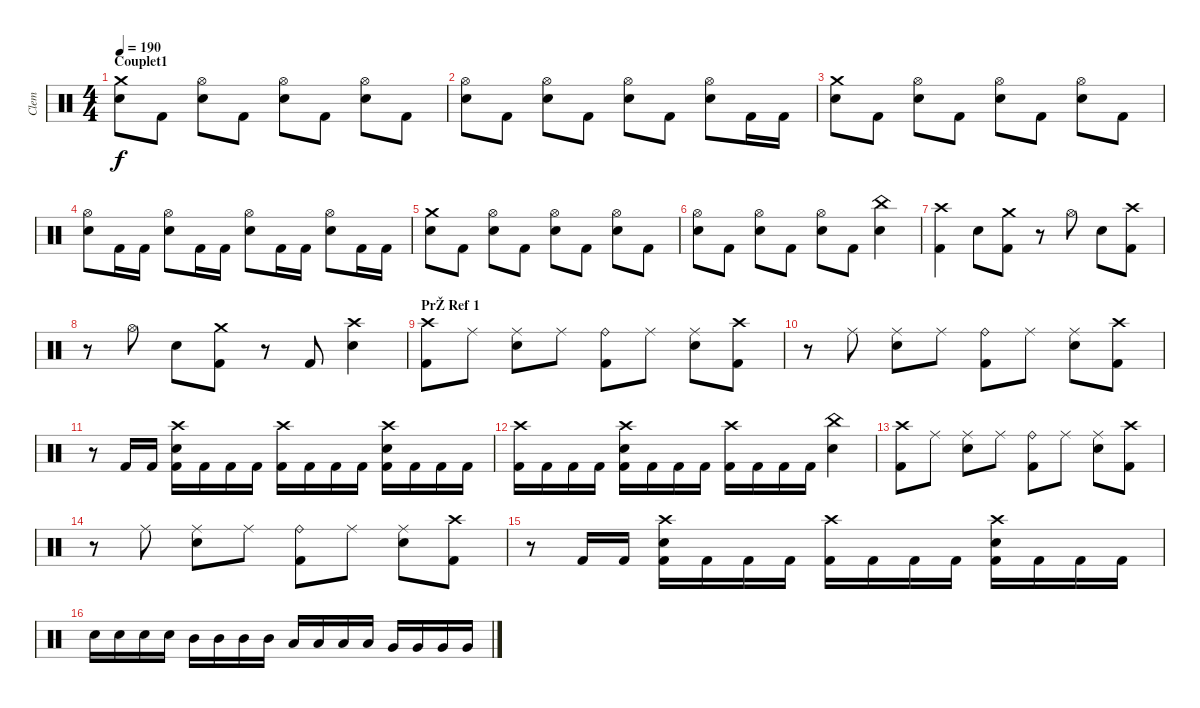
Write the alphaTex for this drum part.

\track ("Clem" "Clem") {instrument percussion}
\staff {score}
\articulation defaults
\ts (4 4)
\section ("" "Couplet1")
\tempo 190
\clef neutral
\ks c
("Crash medium (hit)" "Electric Snare (hit)").8{dy f} "Kick (hit) 2".8 ("Hi-Hat (open)" "Electric Snare (hit)").8 "Kick (hit) 2".8 ("Hi-Hat (open)" "Electric Snare (hit)").8 "Kick (hit) 2".8 ("Hi-Hat (open)" "Electric Snare (hit)").8 "Kick (hit) 2".8 |
("Hi-Hat (open)" "Electric Snare (hit)").8 "Kick (hit) 2".8 ("Hi-Hat (open)" "Electric Snare (hit)").8 "Kick (hit) 2".8 ("Hi-Hat (open)" "Electric Snare (hit)").8 "Kick (hit) 2".8 ("Hi-Hat (open)" "Electric Snare (hit)").8 "Kick (hit) 2".16 "Kick (hit) 2".16 |
("Crash medium (hit)" "Electric Snare (hit)").8 "Kick (hit) 2".8 ("Hi-Hat (open)" "Electric Snare (hit)").8 "Kick (hit) 2".8 ("Hi-Hat (open)" "Electric Snare (hit)").8 "Kick (hit) 2".8 ("Hi-Hat (open)" "Electric Snare (hit)").8 "Kick (hit) 2".8 |
("Hi-Hat (open)" "Electric Snare (hit)").8 "Kick (hit) 2".16 "Kick (hit) 2".16 ("Hi-Hat (open)" "Electric Snare (hit)").8 "Kick (hit) 2".16 "Kick (hit) 2".16 ("Hi-Hat (open)" "Electric Snare (hit)").8 "Kick (hit) 2".16 "Kick (hit) 2".16 ("Hi-Hat (open)" "Electric Snare (hit)").8 "Kick (hit) 2".16 "Kick (hit) 2".16 |
("Crash medium (hit)" "Electric Snare (hit)").8 "Kick (hit) 2".8 ("Hi-Hat (open)" "Electric Snare (hit)").8 "Kick (hit) 2".8 ("Hi-Hat (open)" "Electric Snare (hit)").8 "Kick (hit) 2".8 ("Hi-Hat (open)" "Electric Snare (hit)").8 "Kick (hit) 2".8 |
("Hi-Hat (open)" "Electric Snare (hit)").8 "Kick (hit) 2".8 ("Hi-Hat (open)" "Electric Snare (hit)").8 "Kick (hit) 2".8 ("Hi-Hat (open)" "Electric Snare (hit)").8 "Kick (hit) 2".8 ("China (hit)" "Electric Snare (hit)").4 |
("Crash high (hit)" "Kick (hit) 2").4 "Electric Snare (hit)".8 ("Crash medium (hit)" "Kick (hit) 2").8 r.8 "Hi-Hat (open)".8 "Electric Snare (hit)".8 ("Crash high (hit)" "Kick (hit) 2").8 |
r.8 "Hi-Hat (open)".8 "Electric Snare (hit)".8 ("Crash medium (hit)" "Kick (hit) 2").8 r.8 "Kick (hit) 2".8 ("Crash high (hit)" "Electric Snare (hit)").4 |
\section ("" "PrŽ Ref 1")
("Crash high (hit)" "Kick (hit) 2").8 "Ride (middle)".8 ("Ride (middle)" "Electric Snare (hit)").8 "Ride (middle)".8 ("Ride (bell)" "Kick (hit) 2").8 "Ride (middle)".8 ("Ride (middle)" "Electric Snare (hit)").8 ("Crash high (hit)" "Kick (hit) 2").8 |
r.8 "Ride (middle)".8 ("Ride (middle)" "Electric Snare (hit)").8 "Ride (middle)".8 ("Ride (bell)" "Kick (hit) 2").8 "Ride (middle)".8 ("Ride (middle)" "Electric Snare (hit)").8 ("Crash high (hit)" "Kick (hit) 2").8 |
r.8 "Kick (hit) 2".16 "Kick (hit) 2".16 ("Crash high (hit)" "Electric Snare (hit)" "Kick (hit) 2").16 "Kick (hit) 2".16 "Kick (hit) 2".16 "Kick (hit) 2".16 ("Crash high (hit)" "Kick (hit) 2").16 "Kick (hit) 2".16 "Kick (hit) 2".16 "Kick (hit) 2".16 ("Crash high (hit)" "Electric Snare (hit)" "Kick (hit) 2").16 "Kick (hit) 2".16 "Kick (hit) 2".16 "Kick (hit) 2".16 |
("Crash high (hit)" "Kick (hit) 2").16 "Kick (hit) 2".16 "Kick (hit) 2".16 "Kick (hit) 2".16 ("Crash high (hit)" "Electric Snare (hit)" "Kick (hit) 2").16 "Kick (hit) 2".16 "Kick (hit) 2".16 "Kick (hit) 2".16 ("Crash high (hit)" "Kick (hit) 2").16 "Kick (hit) 2".16 "Kick (hit) 2".16 "Kick (hit) 2".16 ("China (hit)" "Electric Snare (hit)").4 |
("Crash high (hit)" "Kick (hit) 2").8 "Ride (middle)".8 ("Ride (middle)" "Electric Snare (hit)").8 "Ride (middle)".8 ("Ride (bell)" "Kick (hit) 2").8 "Ride (middle)".8 ("Ride (middle)" "Electric Snare (hit)").8 ("Crash high (hit)" "Kick (hit) 2").8 |
r.8 "Ride (middle)".8 ("Ride (middle)" "Electric Snare (hit)").8 "Ride (middle)".8 ("Ride (bell)" "Kick (hit) 2").8 "Ride (middle)".8 ("Ride (middle)" "Electric Snare (hit)").8 ("Crash high (hit)" "Kick (hit) 2").8 |
r.8 "Kick (hit) 2".16 "Kick (hit) 2".16 ("Crash high (hit)" "Electric Snare (hit)" "Kick (hit) 2").16 "Kick (hit) 2".16 "Kick (hit) 2".16 "Kick (hit) 2".16 ("Crash high (hit)" "Kick (hit) 2").16 "Kick (hit) 2".16 "Kick (hit) 2".16 "Kick (hit) 2".16 ("Crash high (hit)" "Electric Snare (hit)" "Kick (hit) 2").16 "Kick (hit) 2".16 "Kick (hit) 2".16 "Kick (hit) 2".16 |
"Electric Snare (hit)".16 "Electric Snare (hit)".16 "Electric Snare (hit)".16 "Electric Snare (hit)".16 "Mid Tom (hit)".16 "Mid Tom (hit)".16 "Mid Tom (hit)".16 "Mid Tom (hit)".16 "Low Tom (hit)".16 "Low Tom (hit)".16 "Low Tom (hit)".16 "Low Tom (hit)".16 "Very Low Tom (hit)".16 "Very Low Tom (hit)".16 "Very Low Tom (hit)".16 "Very Low Tom (hit)".16
